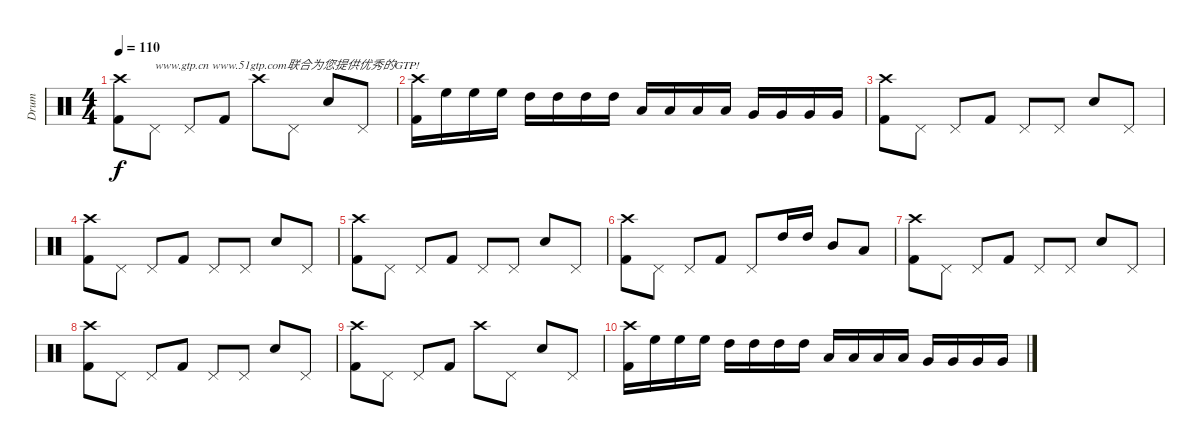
\track ("Drum" "Drum") {instrument percussion}
\staff {score}
\articulation defaults
\ts (4 4)
\tempo 110
\clef neutral
\ks c
("Crash high (hit)" "Kick (hit) 2").8{dy f} "Pedal Hi-Hat (hit)".8{txt "www.gtp.cn www.51gtp.com联合为您提供优秀的GTP!"} "Pedal Hi-Hat (hit)".8 "Kick (hit) 2".8 "Crash high (hit)".8 "Pedal Hi-Hat (hit)".8 "Electric Snare (hit)".8 "Pedal Hi-Hat (hit)".8 |
("Crash high (hit)" "Kick (hit) 2").16 "High Floor Tom (hit)".16 "High Floor Tom (hit)".16 "High Floor Tom (hit)".16 "High Tom (hit)".16 "High Tom (hit)".16 "High Tom (hit)".16 "High Tom (hit)".16 "Low Tom (hit)".16 "Low Tom (hit)".16 "Low Tom (hit)".16 "Low Tom (hit)".16 "Very Low Tom (hit)".16 "Very Low Tom (hit)".16 "Very Low Tom (hit)".16 "Very Low Tom (hit)".16 |
("Crash high (hit)" "Kick (hit) 2").8 "Pedal Hi-Hat (hit)".8 "Pedal Hi-Hat (hit)".8 "Kick (hit) 2".8 "Pedal Hi-Hat (hit)".8 "Pedal Hi-Hat (hit)".8 "Electric Snare (hit)".8 "Pedal Hi-Hat (hit)".8 |
("Crash high (hit)" "Kick (hit) 2").8 "Pedal Hi-Hat (hit)".8 "Pedal Hi-Hat (hit)".8 "Kick (hit) 2".8 "Pedal Hi-Hat (hit)".8 "Pedal Hi-Hat (hit)".8 "Electric Snare (hit)".8 "Pedal Hi-Hat (hit)".8 |
("Crash high (hit)" "Kick (hit) 2").8 "Pedal Hi-Hat (hit)".8 "Pedal Hi-Hat (hit)".8 "Kick (hit) 2".8 "Pedal Hi-Hat (hit)".8 "Pedal Hi-Hat (hit)".8 "Electric Snare (hit)".8 "Pedal Hi-Hat (hit)".8 |
("Crash high (hit)" "Kick (hit) 2").8 "Pedal Hi-Hat (hit)".8 "Pedal Hi-Hat (hit)".8 "Kick (hit) 2".8 "Pedal Hi-Hat (hit)".8 "High Tom (hit)".16 "High Tom (hit)".16 "Mid Tom (hit)".8 "Low Tom (hit)".8 |
("Crash high (hit)" "Kick (hit) 2").8 "Pedal Hi-Hat (hit)".8 "Pedal Hi-Hat (hit)".8 "Kick (hit) 2".8 "Pedal Hi-Hat (hit)".8 "Pedal Hi-Hat (hit)".8 "Electric Snare (hit)".8 "Pedal Hi-Hat (hit)".8 |
("Crash high (hit)" "Kick (hit) 2").8 "Pedal Hi-Hat (hit)".8 "Pedal Hi-Hat (hit)".8 "Kick (hit) 2".8 "Pedal Hi-Hat (hit)".8 "Pedal Hi-Hat (hit)".8 "Electric Snare (hit)".8 "Pedal Hi-Hat (hit)".8 |
("Crash high (hit)" "Kick (hit) 2").8 "Pedal Hi-Hat (hit)".8 "Pedal Hi-Hat (hit)".8 "Kick (hit) 2".8 "Crash high (hit)".8 "Pedal Hi-Hat (hit)".8 "Electric Snare (hit)".8 "Pedal Hi-Hat (hit)".8 |
("Crash high (hit)" "Kick (hit) 2").16 "High Floor Tom (hit)".16 "High Floor Tom (hit)".16 "High Floor Tom (hit)".16 "High Tom (hit)".16 "High Tom (hit)".16 "High Tom (hit)".16 "High Tom (hit)".16 "Low Tom (hit)".16 "Low Tom (hit)".16 "Low Tom (hit)".16 "Low Tom (hit)".16 "Very Low Tom (hit)".16 "Very Low Tom (hit)".16 "Very Low Tom (hit)".16 "Very Low Tom (hit)".16
